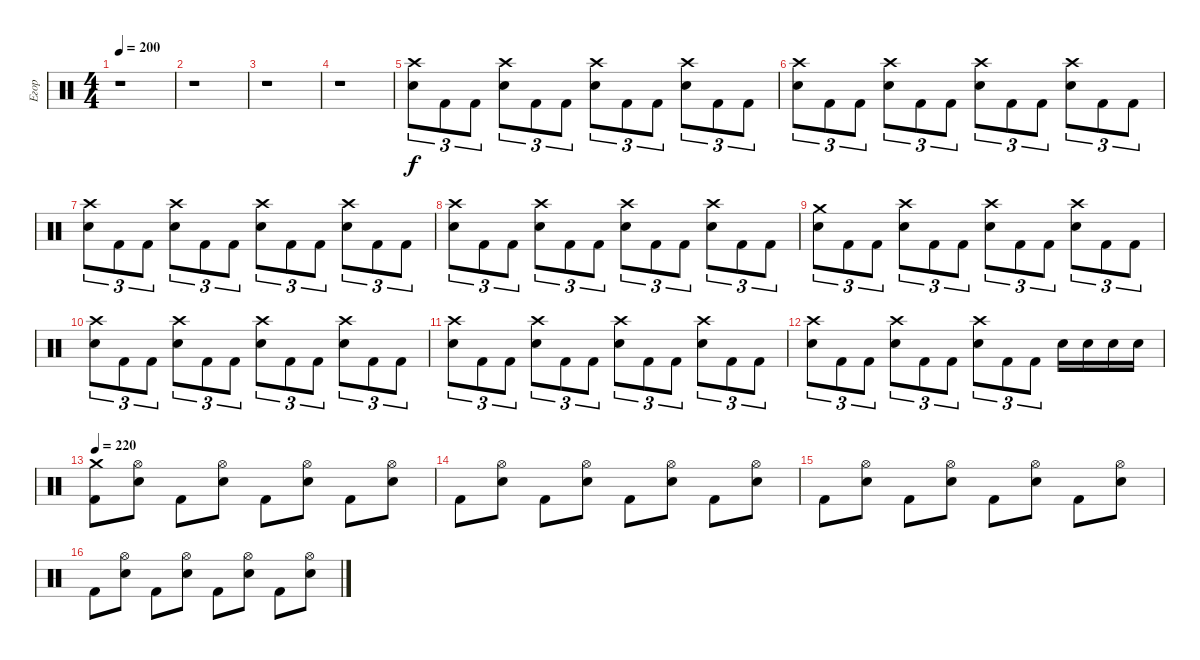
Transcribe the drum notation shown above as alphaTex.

\track ("Егор" "Егор") {instrument percussion}
\staff {score}
\articulation defaults
\ts (4 4)
\tempo 200
\clef neutral
\ks c
r.1{dy f} |
r.1 |
r.1 |
r.1 |
("Crash high (hit)" "Snare (hit) 2").8{tu (3 2)} "Kick (hit) 2".8{tu (3 2)} "Kick (hit) 2".8{tu (3 2)} ("Crash high (hit)" "Snare (hit) 2").8{tu (3 2)} "Kick (hit) 2".8{tu (3 2)} "Kick (hit) 2".8{tu (3 2)} ("Crash high (hit)" "Snare (hit) 2").8{tu (3 2)} "Kick (hit) 2".8{tu (3 2)} "Kick (hit) 2".8{tu (3 2)} ("Crash high (hit)" "Snare (hit) 2").8{tu (3 2)} "Kick (hit) 2".8{tu (3 2)} "Kick (hit) 2".8{tu (3 2)} |
("Crash high (hit)" "Snare (hit) 2").8{tu (3 2)} "Kick (hit) 2".8{tu (3 2)} "Kick (hit) 2".8{tu (3 2)} ("Crash high (hit)" "Snare (hit) 2").8{tu (3 2)} "Kick (hit) 2".8{tu (3 2)} "Kick (hit) 2".8{tu (3 2)} ("Crash high (hit)" "Snare (hit) 2").8{tu (3 2)} "Kick (hit) 2".8{tu (3 2)} "Kick (hit) 2".8{tu (3 2)} ("Crash high (hit)" "Snare (hit) 2").8{tu (3 2)} "Kick (hit) 2".8{tu (3 2)} "Kick (hit) 2".8{tu (3 2)} |
("Crash high (hit)" "Snare (hit) 2").8{tu (3 2)} "Kick (hit) 2".8{tu (3 2)} "Kick (hit) 2".8{tu (3 2)} ("Crash high (hit)" "Snare (hit) 2").8{tu (3 2)} "Kick (hit) 2".8{tu (3 2)} "Kick (hit) 2".8{tu (3 2)} ("Crash high (hit)" "Snare (hit) 2").8{tu (3 2)} "Kick (hit) 2".8{tu (3 2)} "Kick (hit) 2".8{tu (3 2)} ("Crash high (hit)" "Snare (hit) 2").8{tu (3 2)} "Kick (hit) 2".8{tu (3 2)} "Kick (hit) 2".8{tu (3 2)} |
("Crash high (hit)" "Snare (hit) 2").8{tu (3 2)} "Kick (hit) 2".8{tu (3 2)} "Kick (hit) 2".8{tu (3 2)} ("Crash high (hit)" "Snare (hit) 2").8{tu (3 2)} "Kick (hit) 2".8{tu (3 2)} "Kick (hit) 2".8{tu (3 2)} ("Crash high (hit)" "Snare (hit) 2").8{tu (3 2)} "Kick (hit) 2".8{tu (3 2)} "Kick (hit) 2".8{tu (3 2)} ("Crash high (hit)" "Snare (hit) 2").8{tu (3 2)} "Kick (hit) 2".8{tu (3 2)} "Kick (hit) 2".8{tu (3 2)} |
("Crash medium (hit)" "Snare (hit) 2").8{tu (3 2)} "Kick (hit) 2".8{tu (3 2)} "Kick (hit) 2".8{tu (3 2)} ("Crash high (hit)" "Snare (hit) 2").8{tu (3 2)} "Kick (hit) 2".8{tu (3 2)} "Kick (hit) 2".8{tu (3 2)} ("Crash high (hit)" "Snare (hit) 2").8{tu (3 2)} "Kick (hit) 2".8{tu (3 2)} "Kick (hit) 2".8{tu (3 2)} ("Crash high (hit)" "Snare (hit) 2").8{tu (3 2)} "Kick (hit) 2".8{tu (3 2)} "Kick (hit) 2".8{tu (3 2)} |
("Crash high (hit)" "Snare (hit) 2").8{tu (3 2)} "Kick (hit) 2".8{tu (3 2)} "Kick (hit) 2".8{tu (3 2)} ("Crash high (hit)" "Snare (hit) 2").8{tu (3 2)} "Kick (hit) 2".8{tu (3 2)} "Kick (hit) 2".8{tu (3 2)} ("Crash high (hit)" "Snare (hit) 2").8{tu (3 2)} "Kick (hit) 2".8{tu (3 2)} "Kick (hit) 2".8{tu (3 2)} ("Crash high (hit)" "Snare (hit) 2").8{tu (3 2)} "Kick (hit) 2".8{tu (3 2)} "Kick (hit) 2".8{tu (3 2)} |
("Crash high (hit)" "Snare (hit) 2").8{tu (3 2)} "Kick (hit) 2".8{tu (3 2)} "Kick (hit) 2".8{tu (3 2)} ("Crash high (hit)" "Snare (hit) 2").8{tu (3 2)} "Kick (hit) 2".8{tu (3 2)} "Kick (hit) 2".8{tu (3 2)} ("Crash high (hit)" "Snare (hit) 2").8{tu (3 2)} "Kick (hit) 2".8{tu (3 2)} "Kick (hit) 2".8{tu (3 2)} ("Crash high (hit)" "Snare (hit) 2").8{tu (3 2)} "Kick (hit) 2".8{tu (3 2)} "Kick (hit) 2".8{tu (3 2)} |
("Crash high (hit)" "Snare (hit) 2").8{tu (3 2)} "Kick (hit) 2".8{tu (3 2)} "Kick (hit) 2".8{tu (3 2)} ("Crash high (hit)" "Snare (hit) 2").8{tu (3 2)} "Kick (hit) 2".8{tu (3 2)} "Kick (hit) 2".8{tu (3 2)} ("Crash high (hit)" "Snare (hit) 2").8{tu (3 2)} "Kick (hit) 2".8{tu (3 2)} "Kick (hit) 2".8{tu (3 2)} "Snare (hit) 2".16 "Snare (hit) 2".16 "Snare (hit) 2".16 "Snare (hit) 2".16 |
\tempo 220
("Crash medium (hit)" "Kick (hit) 2").8 ("Hi-Hat (open)" "Snare (hit) 2").8 "Kick (hit) 2".8 ("Hi-Hat (open)" "Snare (hit) 2").8 "Kick (hit) 2".8 ("Hi-Hat (open)" "Snare (hit) 2").8 "Kick (hit) 2".8 ("Hi-Hat (open)" "Snare (hit) 2").8 |
"Kick (hit) 2".8 ("Hi-Hat (open)" "Snare (hit) 2").8 "Kick (hit) 2".8 ("Hi-Hat (open)" "Snare (hit) 2").8 "Kick (hit) 2".8 ("Hi-Hat (open)" "Snare (hit) 2").8 "Kick (hit) 2".8 ("Hi-Hat (open)" "Snare (hit) 2").8 |
"Kick (hit) 2".8 ("Hi-Hat (open)" "Snare (hit) 2").8 "Kick (hit) 2".8 ("Hi-Hat (open)" "Snare (hit) 2").8 "Kick (hit) 2".8 ("Hi-Hat (open)" "Snare (hit) 2").8 "Kick (hit) 2".8 ("Hi-Hat (open)" "Snare (hit) 2").8 |
"Kick (hit) 2".8 ("Hi-Hat (open)" "Snare (hit) 2").8 "Kick (hit) 2".8 ("Hi-Hat (open)" "Snare (hit) 2").8 "Kick (hit) 2".8 ("Hi-Hat (open)" "Snare (hit) 2").8 "Kick (hit) 2".8 ("Hi-Hat (open)" "Snare (hit) 2").8
